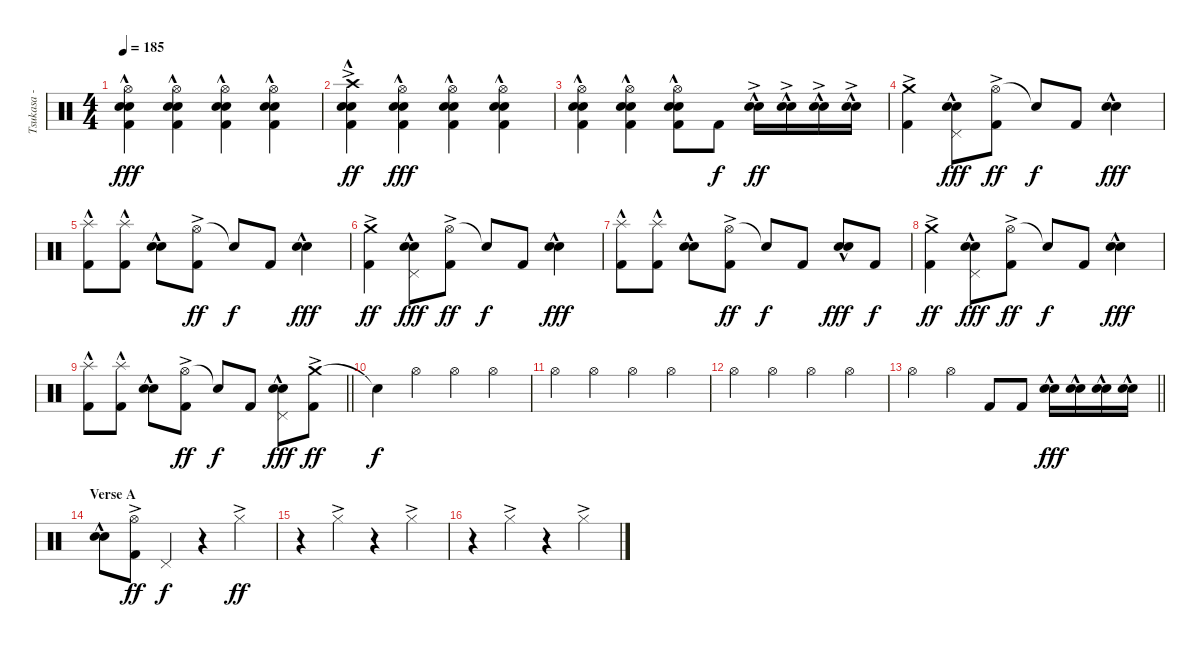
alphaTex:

\track ("Tsukasa - Drums" "Tsukasa - ") {instrument percussion}
\staff {score}
\articulation defaults
\ts (4 4)
\tempo 185
\clef neutral
\ks c
("Hi-Hat (open)" "Electric Snare (hit)"{hac} "Snare (hit) 2" "Kick (hit) 2").4{dy fff} ("Hi-Hat (open)" "Electric Snare (hit)"{hac} "Snare (hit) 2" "Kick (hit) 2").4 ("Hi-Hat (open)" "Electric Snare (hit)"{hac} "Snare (hit) 2" "Kick (hit) 2").4 ("Hi-Hat (open)" "Electric Snare (hit)"{hac} "Snare (hit) 2" "Kick (hit) 2").4 |
("Crash high (hit)"{ac} "Electric Snare (hit)"{hac} "Snare (hit) 2"{ac} "Kick (hit) 2").4{dy ff} ("Hi-Hat (open)" "Electric Snare (hit)"{hac} "Snare (hit) 2" "Kick (hit) 2").4{dy fff} ("Hi-Hat (open)" "Electric Snare (hit)"{hac} "Snare (hit) 2" "Kick (hit) 2").4 ("Hi-Hat (open)" "Electric Snare (hit)"{hac} "Snare (hit) 2" "Kick (hit) 2").4 |
("Hi-Hat (open)" "Electric Snare (hit)"{hac} "Snare (hit) 2" "Kick (hit) 2").4 ("Hi-Hat (open)" "Electric Snare (hit)"{hac} "Snare (hit) 2" "Kick (hit) 2").4 ("Hi-Hat (open)" "Electric Snare (hit)"{hac} "Snare (hit) 2" "Kick (hit) 2").8 "Kick (hit) 2".8{dy f} ("Electric Snare (hit)"{hac} "Snare (hit) 2"{ac}).16{dy ff} ("Electric Snare (hit)"{hac} "Snare (hit) 2"{ac}).16 ("Electric Snare (hit)"{hac} "Snare (hit) 2"{ac}).16 ("Electric Snare (hit)"{hac} "Snare (hit) 2"{ac}).16 |
("Crash medium (hit)"{ac} "Kick (hit) 2").4 ("Pedal Hi-Hat (hit)" "Electric Snare (hit)"{hac} "Snare (hit) 2"{hac}).8{dy fff} ("Hi-Hat (open)"{ac} "Kick (hit) 2").8{dy ff} "Snare (hit)"{t}.8{dy f} "Kick (hit) 2".8 ("Electric Snare (hit)"{hac} "Snare (hit) 2"{hac}).4{dy fff} |
("Splash (hit)"{hac} "Kick (hit) 2").8 ("Splash (hit)"{hac} "Kick (hit) 2").8 ("Electric Snare (hit)"{hac} "Snare (hit) 2"{hac}).8 ("Hi-Hat (open)"{ac} "Kick (hit) 2").8{dy ff} "Snare (hit)"{t}.8{dy f} "Kick (hit) 2".8 ("Electric Snare (hit)"{hac} "Snare (hit) 2"{hac}).4{dy fff} |
("Crash medium (hit)"{ac} "Kick (hit) 2").4{dy ff} ("Pedal Hi-Hat (hit)" "Electric Snare (hit)"{hac} "Snare (hit) 2"{hac}).8{dy fff} ("Hi-Hat (open)"{ac} "Kick (hit) 2").8{dy ff} "Snare (hit)"{t}.8{dy f} "Kick (hit) 2".8 ("Electric Snare (hit)"{hac} "Snare (hit) 2"{hac}).4{dy fff} |
("Splash (hit)"{hac} "Kick (hit) 2").8 ("Splash (hit)"{hac} "Kick (hit) 2").8 ("Electric Snare (hit)"{hac} "Snare (hit) 2"{hac}).8 ("Hi-Hat (open)"{ac} "Kick (hit) 2").8{dy ff} "Snare (hit)"{t}.8{dy f} "Kick (hit) 2".8 ("Electric Snare (hit)"{hac} "Snare (hit) 2"{hac}).8{dy fff} "Kick (hit) 2".8{dy f} |
("Crash medium (hit)"{ac} "Kick (hit) 2").4{dy ff} ("Pedal Hi-Hat (hit)" "Electric Snare (hit)"{hac} "Snare (hit) 2"{hac}).8{dy fff} ("Hi-Hat (open)"{ac} "Kick (hit) 2").8{dy ff} "Snare (hit)"{t}.8{dy f} "Kick (hit) 2".8 ("Electric Snare (hit)"{hac} "Snare (hit) 2"{hac}).4{dy fff} |
\barLineRight lightlight
("Splash (hit)"{hac} "Kick (hit) 2").8 ("Splash (hit)"{hac} "Kick (hit) 2").8 ("Electric Snare (hit)"{hac} "Snare (hit) 2"{hac}).8 ("Hi-Hat (open)"{ac} "Kick (hit) 2").8{dy ff} "Snare (hit)"{t}.8{dy f} "Kick (hit) 2".8 ("Pedal Hi-Hat (hit)" "Electric Snare (hit)"{hac} "Snare (hit) 2"{hac}).8{dy fff} ("Crash medium (hit)"{ac} "Kick (hit) 2").8{dy ff} |
\section ("" "")
"Snare (hit)"{t}.4{dy f} "Hi-Hat (open)".4 "Hi-Hat (open)".4 "Hi-Hat (open)".4 |
"Hi-Hat (open)".4 "Hi-Hat (open)".4 "Hi-Hat (open)".4 "Hi-Hat (open)".4 |
"Hi-Hat (open)".4 "Hi-Hat (open)".4 "Hi-Hat (open)".4 "Hi-Hat (open)".4 |
\barLineRight lightlight "Hi-Hat (open)".4 "Hi-Hat (open)".4 "Kick (hit) 2".8 "Kick (hit) 2".8
("Electric Snare (hit)"{hac} "Snare (hit) 2"{hac}).16{dy fff} ("Electric Snare (hit)"{hac} "Snare (hit) 2"{hac}).16 ("Electric Snare (hit)"{hac} "Snare (hit) 2"{hac}).16 ("Electric Snare (hit)"{hac} "Snare (hit) 2"{hac}).16 |
\section ("" "Verse A")
("Electric Snare (hit)"{hac} "Snare (hit) 2"{hac}).8 ("Hi-Hat (open)"{ac} "Kick (hit) 2").8{dy ff} "Pedal Hi-Hat (hit)".4{dy f} r.4 "Hi-Hat (closed)"{ac}.4{dy ff} |
r.4 "Hi-Hat (closed)"{ac}.4 r.4 "Hi-Hat (closed)"{ac}.4 |
r.4 "Hi-Hat (closed)"{ac}.4 r.4 "Hi-Hat (closed)"{ac}.4
